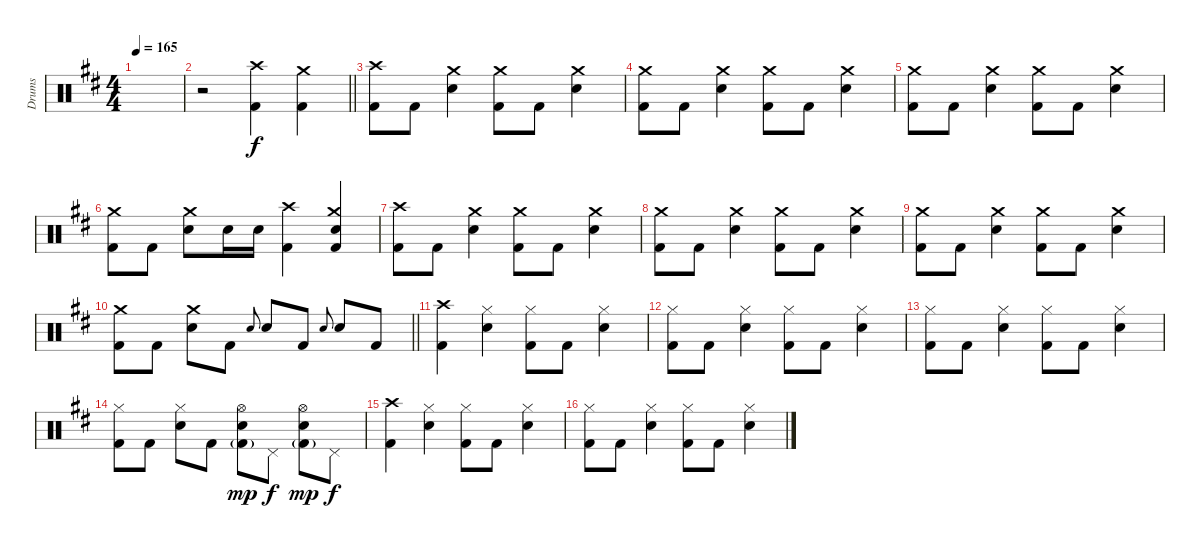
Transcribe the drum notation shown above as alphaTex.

\track ("Drums" "Drums") {instrument percussion}
\staff {score}
\articulation defaults
\ts (4 4)
\tempo 165
\clef neutral
\ks d
|
\barLineRight lightlight
r.2 ("Crash high (hit)" "Kick (hit) 2").4 ("Crash medium (hit)" "Kick (hit) 2").4 |
("Crash high (hit)" "Kick (hit) 2").8 "Kick (hit) 2".8 ("Crash medium (hit)" "Electric Snare (hit)").4 ("Crash medium (hit)" "Kick (hit) 2").8 "Kick (hit) 2".8 ("Crash medium (hit)" "Electric Snare (hit)").4 |
("Crash medium (hit)" "Kick (hit) 2").8 "Kick (hit) 2".8 ("Crash medium (hit)" "Electric Snare (hit)").4 ("Crash medium (hit)" "Kick (hit) 2").8 "Kick (hit) 2".8 ("Crash medium (hit)" "Electric Snare (hit)").4 |
("Crash medium (hit)" "Kick (hit) 2").8 "Kick (hit) 2".8 ("Crash medium (hit)" "Electric Snare (hit)").4 ("Crash medium (hit)" "Kick (hit) 2").8 "Kick (hit) 2".8 ("Crash medium (hit)" "Electric Snare (hit)").4 |
("Crash medium (hit)" "Kick (hit) 2").8 "Kick (hit) 2".8 ("Crash medium (hit)" "Electric Snare (hit)").8 "Electric Snare (hit)".16 "Electric Snare (hit)".16 ("Crash high (hit)" "Kick (hit) 2").4 ("Crash medium (hit)" "Electric Snare (hit)" "Kick (hit) 2").4 |
("Crash high (hit)" "Kick (hit) 2").8 "Kick (hit) 2".8 ("Crash medium (hit)" "Electric Snare (hit)").4 ("Crash medium (hit)" "Kick (hit) 2").8 "Kick (hit) 2".8 ("Crash medium (hit)" "Electric Snare (hit)").4 |
("Crash medium (hit)" "Kick (hit) 2").8 "Kick (hit) 2".8 ("Crash medium (hit)" "Electric Snare (hit)").4 ("Crash medium (hit)" "Kick (hit) 2").8 "Kick (hit) 2".8 ("Crash medium (hit)" "Electric Snare (hit)").4 |
("Crash medium (hit)" "Kick (hit) 2").8 "Kick (hit) 2".8 ("Crash medium (hit)" "Electric Snare (hit)").4 ("Crash medium (hit)" "Kick (hit) 2").8 "Kick (hit) 2".8 ("Crash medium (hit)" "Electric Snare (hit)").4 |
\barLineRight lightlight
("Crash medium (hit)" "Kick (hit) 2").8 "Kick (hit) 2".8 ("Crash medium (hit)" "Electric Snare (hit)").8 "Kick (hit) 2".8 "Electric Snare (hit)".8{gr onbeat} "Electric Snare (hit)".8 "Kick (hit) 2".8 "Electric Snare (hit)".8{gr onbeat} "Electric Snare (hit)".8 "Kick (hit) 2".8 |
("Crash high (hit)" "Kick (hit) 2").4 ("Hi-Hat (closed)" "Electric Snare (hit)").4 ("Hi-Hat (closed)" "Kick (hit) 2").8 "Kick (hit) 2".8 ("Hi-Hat (closed)" "Electric Snare (hit)").4 |
("Hi-Hat (closed)" "Kick (hit) 2").8 "Kick (hit) 2".8 ("Hi-Hat (closed)" "Electric Snare (hit)").4 ("Hi-Hat (closed)" "Kick (hit) 2").8 "Kick (hit) 2".8 ("Hi-Hat (closed)" "Electric Snare (hit)").4 |
("Hi-Hat (closed)" "Kick (hit) 2").8 "Kick (hit) 2".8 ("Hi-Hat (closed)" "Electric Snare (hit)").4 ("Hi-Hat (closed)" "Kick (hit) 2").8 "Kick (hit) 2".8 ("Hi-Hat (closed)" "Electric Snare (hit)").4 |
("Hi-Hat (closed)" "Kick (hit) 2").8 "Kick (hit) 2".8 ("Hi-Hat (closed)" "Electric Snare (hit)").8 "Kick (hit) 2".8 ("Hi-Hat (open)" "Electric Snare (hit)" "Kick (hit) 2"{g}).8{dy mp} "Pedal Hi-Hat (hit)".8{dy f} ("Hi-Hat (open)" "Electric Snare (hit)" "Kick (hit) 2"{g}).8{dy mp} "Pedal Hi-Hat (hit)".8{dy f} |
("Crash high (hit)" "Kick (hit) 2").4 ("Hi-Hat (closed)" "Electric Snare (hit)").4 ("Hi-Hat (closed)" "Kick (hit) 2").8 "Kick (hit) 2".8 ("Hi-Hat (closed)" "Electric Snare (hit)").4 |
("Hi-Hat (closed)" "Kick (hit) 2").8 "Kick (hit) 2".8 ("Hi-Hat (closed)" "Electric Snare (hit)").4 ("Hi-Hat (closed)" "Kick (hit) 2").8 "Kick (hit) 2".8 ("Hi-Hat (closed)" "Electric Snare (hit)").4
